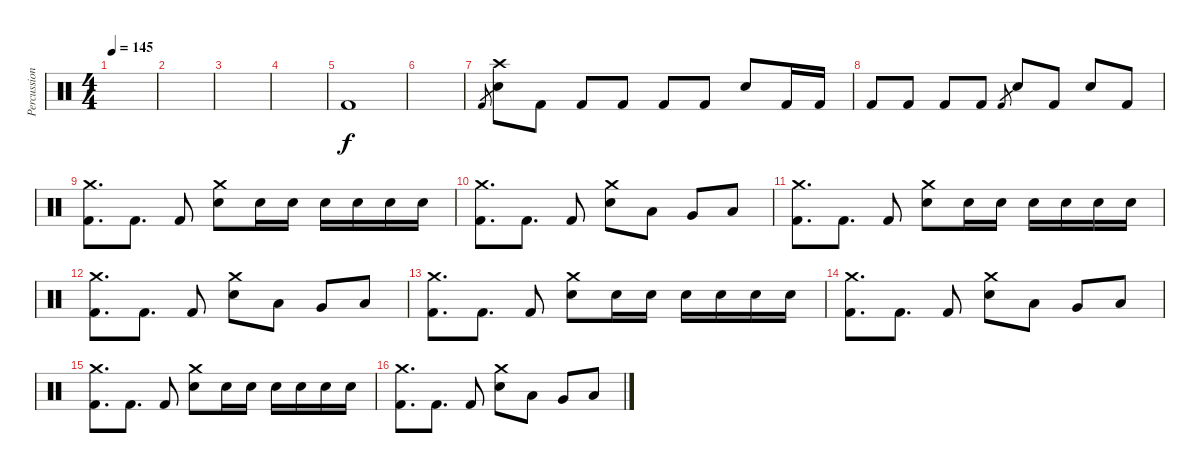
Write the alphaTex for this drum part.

\track ("Percussions" "Percussion") {instrument percussion}
\staff {score}
\articulation defaults
\ts (4 4)
\tempo 145
\clef neutral
\ks c
|
|
|
|
"Kick (hit) 2".1 |
|
"Kick (hit) 2".8{gr} ("Crash high (hit)" "Electric Snare (hit)").8 "Kick (hit) 2".8 "Kick (hit) 2".8 "Kick (hit) 2".8 "Kick (hit) 2".8 "Kick (hit) 2".8 "Electric Snare (hit)".8 "Kick (hit) 2".16 "Kick (hit) 2".16 |
"Kick (hit) 2".8 "Kick (hit) 2".8 "Kick (hit) 2".8 "Kick (hit) 2".8 "Kick (hit) 2".8{gr} "Electric Snare (hit)".8 "Kick (hit) 2".8 "Electric Snare (hit)".8 "Kick (hit) 2".8 |
("Crash medium (hit)" "Kick (hit) 2").8{d} "Kick (hit) 2".8{d} "Kick (hit) 2".8 ("Crash medium (hit)" "Electric Snare (hit)").8 "Electric Snare (hit)".16 "Electric Snare (hit)".16 "Electric Snare (hit)".16 "Electric Snare (hit)".16 "Electric Snare (hit)".16 "Electric Snare (hit)".16 |
("Crash medium (hit)" "Kick (hit) 2").8{d} "Kick (hit) 2".8{d} "Kick (hit) 2".8 ("Crash medium (hit)" "Electric Snare (hit)").8 "Low Tom (hit)".8 "Very Low Tom (hit)".8 "Low Floor Tom (hit)".8 |
("Crash medium (hit)" "Kick (hit) 2").8{d} "Kick (hit) 2".8{d} "Kick (hit) 2".8 ("Crash medium (hit)" "Electric Snare (hit)").8 "Electric Snare (hit)".16 "Electric Snare (hit)".16 "Electric Snare (hit)".16 "Electric Snare (hit)".16 "Electric Snare (hit)".16 "Electric Snare (hit)".16 |
("Crash medium (hit)" "Kick (hit) 2").8{d} "Kick (hit) 2".8{d} "Kick (hit) 2".8 ("Crash medium (hit)" "Electric Snare (hit)").8 "Low Tom (hit)".8 "Very Low Tom (hit)".8 "Low Floor Tom (hit)".8 |
("Crash medium (hit)" "Kick (hit) 2").8{d} "Kick (hit) 2".8{d} "Kick (hit) 2".8 ("Crash medium (hit)" "Electric Snare (hit)").8 "Electric Snare (hit)".16 "Electric Snare (hit)".16 "Electric Snare (hit)".16 "Electric Snare (hit)".16 "Electric Snare (hit)".16 "Electric Snare (hit)".16 |
("Crash medium (hit)" "Kick (hit) 2").8{d} "Kick (hit) 2".8{d} "Kick (hit) 2".8 ("Crash medium (hit)" "Electric Snare (hit)").8 "Low Tom (hit)".8 "Very Low Tom (hit)".8 "Low Floor Tom (hit)".8 |
("Crash medium (hit)" "Kick (hit) 2").8{d} "Kick (hit) 2".8{d} "Kick (hit) 2".8 ("Crash medium (hit)" "Electric Snare (hit)").8 "Electric Snare (hit)".16 "Electric Snare (hit)".16 "Electric Snare (hit)".16 "Electric Snare (hit)".16 "Electric Snare (hit)".16 "Electric Snare (hit)".16 |
("Crash medium (hit)" "Kick (hit) 2").8{d} "Kick (hit) 2".8{d} "Kick (hit) 2".8 ("Crash medium (hit)" "Electric Snare (hit)").8 "Low Tom (hit)".8 "Very Low Tom (hit)".8 "Low Floor Tom (hit)".8
